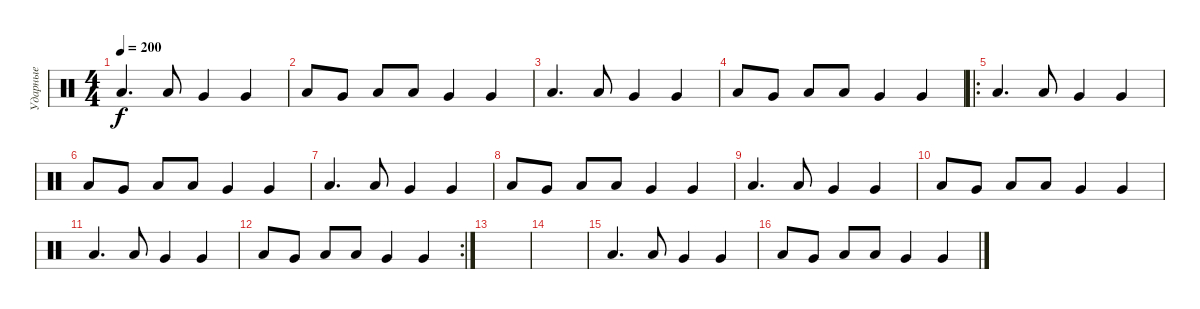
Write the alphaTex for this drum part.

\track ("Ударные" "Ударные") {instrument percussion}
\staff {score}
\articulation defaults
\ts (4 4)
\tempo 200
\clef neutral
\ks c "Low Floor Tom (hit)".4{d dy f} "Low Floor Tom (hit)".8 "Very Low Tom (hit)".4 "Very Low Tom (hit)".4
|
"Low Floor Tom (hit)".8 "Very Low Tom (hit)".8 "Low Floor Tom (hit)".8 "Low Floor Tom (hit)".8 "Very Low Tom (hit)".4 "Very Low Tom (hit)".4 |
"Low Floor Tom (hit)".4{d} "Low Floor Tom (hit)".8 "Very Low Tom (hit)".4 "Very Low Tom (hit)".4 |
"Low Floor Tom (hit)".8 "Very Low Tom (hit)".8 "Low Floor Tom (hit)".8 "Low Floor Tom (hit)".8 "Very Low Tom (hit)".4 "Very Low Tom (hit)".4 |
\ro "Low Floor Tom (hit)".4{d} "Low Floor Tom (hit)".8 "Very Low Tom (hit)".4 "Very Low Tom (hit)".4
|
"Low Floor Tom (hit)".8 "Very Low Tom (hit)".8 "Low Floor Tom (hit)".8 "Low Floor Tom (hit)".8 "Very Low Tom (hit)".4 "Very Low Tom (hit)".4 |
"Low Floor Tom (hit)".4{d} "Low Floor Tom (hit)".8 "Very Low Tom (hit)".4 "Very Low Tom (hit)".4 |
"Low Floor Tom (hit)".8 "Very Low Tom (hit)".8 "Low Floor Tom (hit)".8 "Low Floor Tom (hit)".8 "Very Low Tom (hit)".4 "Very Low Tom (hit)".4 |
"Low Floor Tom (hit)".4{d} "Low Floor Tom (hit)".8 "Very Low Tom (hit)".4 "Very Low Tom (hit)".4 |
"Low Floor Tom (hit)".8 "Very Low Tom (hit)".8 "Low Floor Tom (hit)".8 "Low Floor Tom (hit)".8 "Very Low Tom (hit)".4 "Very Low Tom (hit)".4 |
"Low Floor Tom (hit)".4{d} "Low Floor Tom (hit)".8 "Very Low Tom (hit)".4 "Very Low Tom (hit)".4 |
\rc 2 "Low Floor Tom (hit)".8 "Very Low Tom (hit)".8 "Low Floor Tom (hit)".8 "Low Floor Tom (hit)".8 "Very Low Tom (hit)".4 "Very Low Tom (hit)".4
|
|
|
"Low Floor Tom (hit)".4{d} "Low Floor Tom (hit)".8 "Very Low Tom (hit)".4 "Very Low Tom (hit)".4 |
"Low Floor Tom (hit)".8 "Very Low Tom (hit)".8 "Low Floor Tom (hit)".8 "Low Floor Tom (hit)".8 "Very Low Tom (hit)".4 "Very Low Tom (hit)".4
